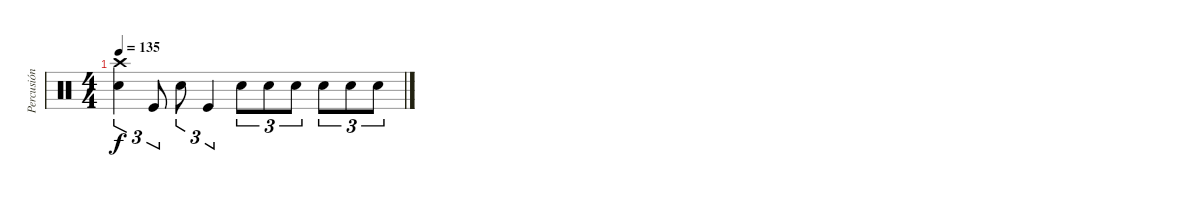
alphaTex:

\track ("Percusión" "Percusión") {instrument percussion}
\staff {score}
\articulation defaults
\ts (4 4)
\tempo 135
\clef neutral
\ks c
("Crash high (hit)" "Electric Snare (hit)").4{tu (3 2) dy f} "Kick (hit)".8{tu (3 2)} "Electric Snare (hit)".8{tu (3 2)} "Kick (hit)".4{tu (3 2)} "Electric Snare (hit)".8{tu (3 2)} "Electric Snare (hit)".8{tu (3 2)} "Electric Snare (hit)".8{tu (3 2)} "Electric Snare (hit)".8{tu (3 2)} "Electric Snare (hit)".8{tu (3 2)} "Electric Snare (hit)".8{tu (3 2)}
